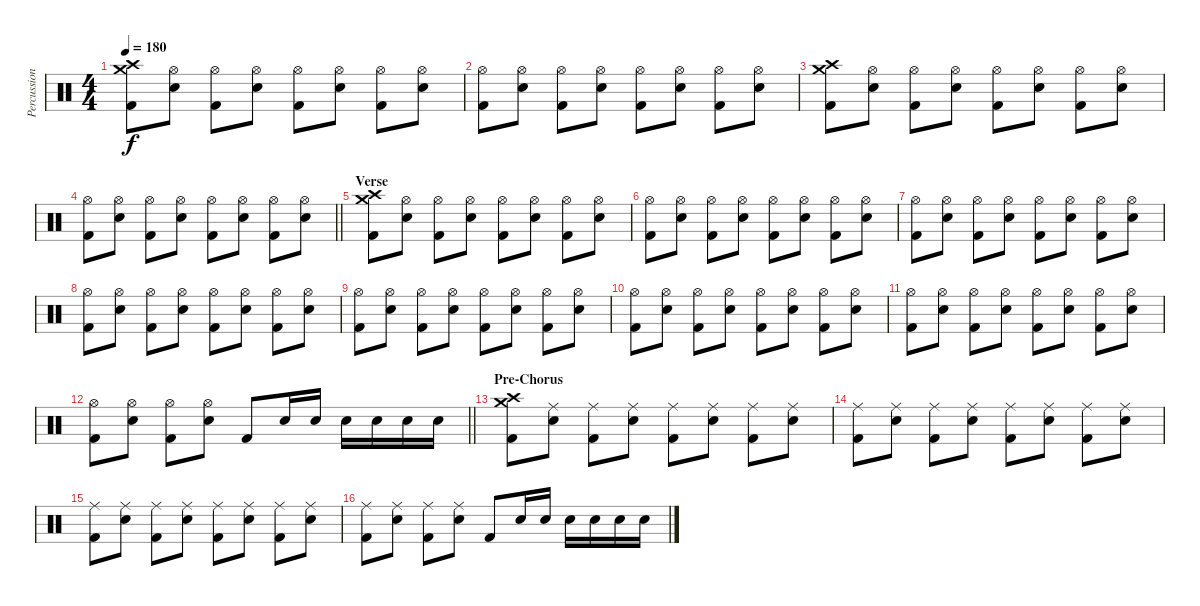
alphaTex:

\track ("Percussion" "Percussion") {instrument percussion}
\staff {score}
\articulation defaults
\ts (4 4)
\section ("" "")
\tempo 180
\clef neutral
\ks c
("Crash high (hit)" "Crash medium (hit)" "Kick (hit) 2").8{dy f} ("Hi-Hat (open)" "Electric Snare (hit)").8 ("Hi-Hat (open)" "Kick (hit) 2").8 ("Hi-Hat (open)" "Electric Snare (hit)").8 ("Hi-Hat (open)" "Kick (hit) 2").8 ("Hi-Hat (open)" "Electric Snare (hit)").8 ("Hi-Hat (open)" "Kick (hit) 2").8 ("Hi-Hat (open)" "Electric Snare (hit)").8 |
("Hi-Hat (open)" "Kick (hit) 2").8 ("Hi-Hat (open)" "Electric Snare (hit)").8 ("Hi-Hat (open)" "Kick (hit) 2").8 ("Hi-Hat (open)" "Electric Snare (hit)").8 ("Hi-Hat (open)" "Kick (hit) 2").8 ("Hi-Hat (open)" "Electric Snare (hit)").8 ("Hi-Hat (open)" "Kick (hit) 2").8 ("Hi-Hat (open)" "Electric Snare (hit)").8 |
("Crash high (hit)" "Crash medium (hit)" "Kick (hit) 2").8 ("Hi-Hat (open)" "Electric Snare (hit)").8 ("Hi-Hat (open)" "Kick (hit) 2").8 ("Hi-Hat (open)" "Electric Snare (hit)").8 ("Hi-Hat (open)" "Kick (hit) 2").8 ("Hi-Hat (open)" "Electric Snare (hit)").8 ("Hi-Hat (open)" "Kick (hit) 2").8 ("Hi-Hat (open)" "Electric Snare (hit)").8 |
\barLineRight lightlight
("Hi-Hat (open)" "Kick (hit) 2").8 ("Hi-Hat (open)" "Electric Snare (hit)").8 ("Hi-Hat (open)" "Kick (hit) 2").8 ("Hi-Hat (open)" "Electric Snare (hit)").8 ("Hi-Hat (open)" "Kick (hit) 2").8 ("Hi-Hat (open)" "Electric Snare (hit)").8 ("Hi-Hat (open)" "Kick (hit) 2").8 ("Hi-Hat (open)" "Electric Snare (hit)").8 |
\section ("" "Verse")
("Crash high (hit)" "Crash medium (hit)" "Kick (hit) 2").8 ("Hi-Hat (open)" "Electric Snare (hit)").8 ("Hi-Hat (open)" "Kick (hit) 2").8 ("Hi-Hat (open)" "Electric Snare (hit)").8 ("Hi-Hat (open)" "Kick (hit) 2").8 ("Hi-Hat (open)" "Electric Snare (hit)").8 ("Hi-Hat (open)" "Kick (hit) 2").8 ("Hi-Hat (open)" "Electric Snare (hit)").8 |
("Hi-Hat (open)" "Kick (hit) 2").8 ("Hi-Hat (open)" "Electric Snare (hit)").8 ("Hi-Hat (open)" "Kick (hit) 2").8 ("Hi-Hat (open)" "Electric Snare (hit)").8 ("Hi-Hat (open)" "Kick (hit) 2").8 ("Hi-Hat (open)" "Electric Snare (hit)").8 ("Hi-Hat (open)" "Kick (hit) 2").8 ("Hi-Hat (open)" "Electric Snare (hit)").8 |
("Hi-Hat (open)" "Kick (hit) 2").8 ("Hi-Hat (open)" "Electric Snare (hit)").8 ("Hi-Hat (open)" "Kick (hit) 2").8 ("Hi-Hat (open)" "Electric Snare (hit)").8 ("Hi-Hat (open)" "Kick (hit) 2").8 ("Hi-Hat (open)" "Electric Snare (hit)").8 ("Hi-Hat (open)" "Kick (hit) 2").8 ("Hi-Hat (open)" "Electric Snare (hit)").8 |
("Hi-Hat (open)" "Kick (hit) 2").8 ("Hi-Hat (open)" "Electric Snare (hit)").8 ("Hi-Hat (open)" "Kick (hit) 2").8 ("Hi-Hat (open)" "Electric Snare (hit)").8 ("Hi-Hat (open)" "Kick (hit) 2").8 ("Hi-Hat (open)" "Electric Snare (hit)").8 ("Hi-Hat (open)" "Kick (hit) 2").8 ("Hi-Hat (open)" "Electric Snare (hit)").8 |
("Hi-Hat (open)" "Kick (hit) 2").8 ("Hi-Hat (open)" "Electric Snare (hit)").8 ("Hi-Hat (open)" "Kick (hit) 2").8 ("Hi-Hat (open)" "Electric Snare (hit)").8 ("Hi-Hat (open)" "Kick (hit) 2").8 ("Hi-Hat (open)" "Electric Snare (hit)").8 ("Hi-Hat (open)" "Kick (hit) 2").8 ("Hi-Hat (open)" "Electric Snare (hit)").8 |
("Hi-Hat (open)" "Kick (hit) 2").8 ("Hi-Hat (open)" "Electric Snare (hit)").8 ("Hi-Hat (open)" "Kick (hit) 2").8 ("Hi-Hat (open)" "Electric Snare (hit)").8 ("Hi-Hat (open)" "Kick (hit) 2").8 ("Hi-Hat (open)" "Electric Snare (hit)").8 ("Hi-Hat (open)" "Kick (hit) 2").8 ("Hi-Hat (open)" "Electric Snare (hit)").8 |
("Hi-Hat (open)" "Kick (hit) 2").8 ("Hi-Hat (open)" "Electric Snare (hit)").8 ("Hi-Hat (open)" "Kick (hit) 2").8 ("Hi-Hat (open)" "Electric Snare (hit)").8 ("Hi-Hat (open)" "Kick (hit) 2").8 ("Hi-Hat (open)" "Electric Snare (hit)").8 ("Hi-Hat (open)" "Kick (hit) 2").8 ("Hi-Hat (open)" "Electric Snare (hit)").8 |
\barLineRight lightlight
("Hi-Hat (open)" "Kick (hit) 2").8 ("Hi-Hat (open)" "Electric Snare (hit)").8 ("Hi-Hat (open)" "Kick (hit) 2").8 ("Hi-Hat (open)" "Electric Snare (hit)").8 "Kick (hit) 2".8 "Electric Snare (hit)".16 "Electric Snare (hit)".16 "Electric Snare (hit)".16 "Electric Snare (hit)".16 "Electric Snare (hit)".16 "Electric Snare (hit)".16 |
\section ("" "Pre-Chorus")
("Crash high (hit)" "Crash medium (hit)" "Kick (hit) 2").8 ("Ride (middle)" "Electric Snare (hit)").8 ("Ride (middle)" "Kick (hit) 2").8 ("Ride (middle)" "Electric Snare (hit)").8 ("Ride (middle)" "Kick (hit) 2").8 ("Ride (middle)" "Electric Snare (hit)").8 ("Ride (middle)" "Kick (hit) 2").8 ("Ride (middle)" "Electric Snare (hit)").8 |
("Ride (middle)" "Kick (hit) 2").8 ("Ride (middle)" "Electric Snare (hit)").8 ("Ride (middle)" "Kick (hit) 2").8 ("Ride (middle)" "Electric Snare (hit)").8 ("Ride (middle)" "Kick (hit) 2").8 ("Ride (middle)" "Electric Snare (hit)").8 ("Ride (middle)" "Kick (hit) 2").8 ("Ride (middle)" "Electric Snare (hit)").8 |
("Ride (middle)" "Kick (hit) 2").8 ("Ride (middle)" "Electric Snare (hit)").8 ("Ride (middle)" "Kick (hit) 2").8 ("Ride (middle)" "Electric Snare (hit)").8 ("Ride (middle)" "Kick (hit) 2").8 ("Ride (middle)" "Electric Snare (hit)").8 ("Ride (middle)" "Kick (hit) 2").8 ("Ride (middle)" "Electric Snare (hit)").8 |
("Ride (middle)" "Kick (hit) 2").8 ("Ride (middle)" "Electric Snare (hit)").8 ("Ride (middle)" "Kick (hit) 2").8 ("Ride (middle)" "Electric Snare (hit)").8 "Kick (hit) 2".8 "Electric Snare (hit)".16 "Electric Snare (hit)".16 "Electric Snare (hit)".16 "Electric Snare (hit)".16 "Electric Snare (hit)".16 "Electric Snare (hit)".16
